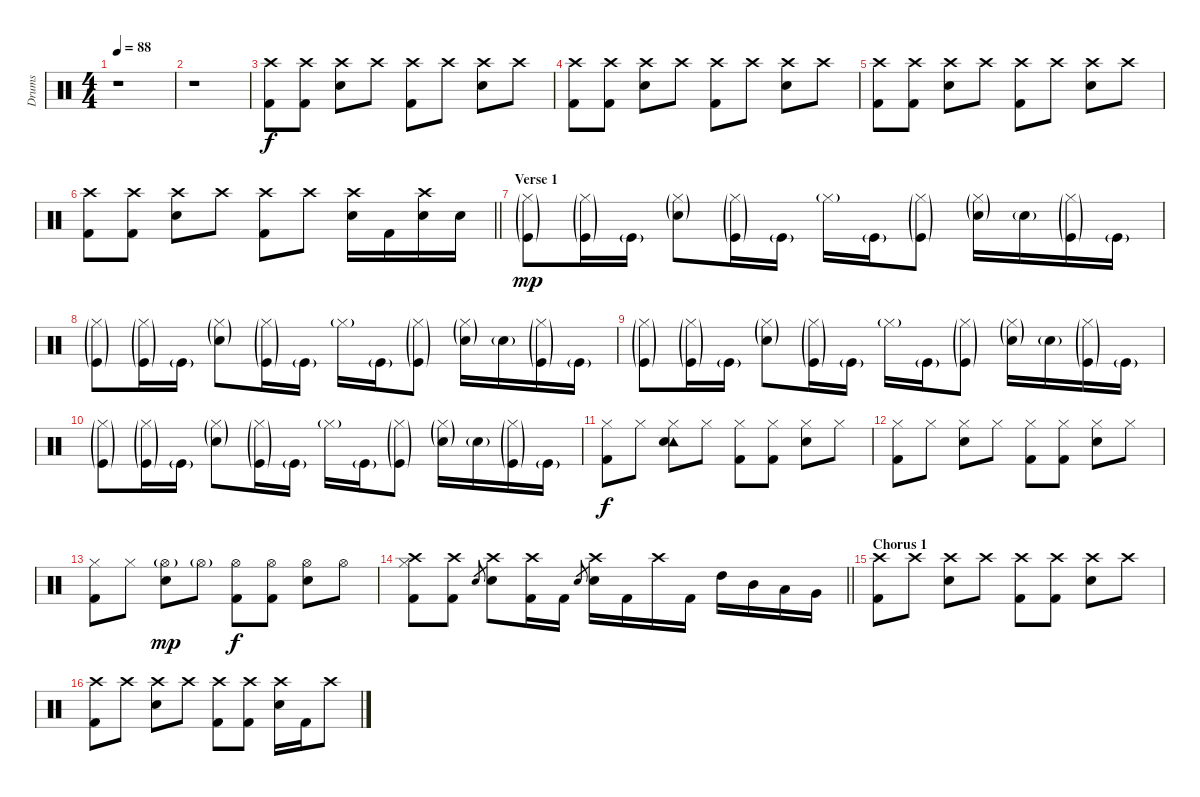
\track ("Drums" "Drums") {instrument percussion}
\staff {score}
\articulation defaults
\ts (4 4)
\tempo 88
\clef neutral
\ks c
r.1{dy f} |
r.1 |
("Crash high (hit)" "Kick (hit) 2").8 ("Crash high (hit)" "Kick (hit) 2").8 ("Crash high (hit)" "Electric Snare (hit)").8 "Crash high (hit)".8 ("Crash high (hit)" "Kick (hit) 2").8 "Crash high (hit)".8 ("Crash high (hit)" "Electric Snare (hit)").8 "Crash high (hit)".8 |
("Crash high (hit)" "Kick (hit) 2").8 ("Crash high (hit)" "Kick (hit) 2").8 ("Crash high (hit)" "Electric Snare (hit)").8 "Crash high (hit)".8 ("Crash high (hit)" "Kick (hit) 2").8 "Crash high (hit)".8 ("Crash high (hit)" "Electric Snare (hit)").8 "Crash high (hit)".8 |
("Crash high (hit)" "Kick (hit) 2").8 ("Crash high (hit)" "Kick (hit) 2").8 ("Crash high (hit)" "Electric Snare (hit)").8 "Crash high (hit)".8 ("Crash high (hit)" "Kick (hit) 2").8 "Crash high (hit)".8 ("Crash high (hit)" "Electric Snare (hit)").8 "Crash high (hit)".8 |
\barLineRight lightlight
("Crash high (hit)" "Kick (hit) 2").8 ("Crash high (hit)" "Kick (hit) 2").8 ("Crash high (hit)" "Electric Snare (hit)").8 "Crash high (hit)".8 ("Crash high (hit)" "Kick (hit) 2").8 "Crash high (hit)".8 ("Crash high (hit)" "Electric Snare (hit)").16 "Kick (hit) 2".16 ("Crash high (hit)" "Electric Snare (hit)").16 "Electric Snare (hit)".16 |
\section ("" "Verse 1")
("Hi-Hat (closed)"{g} "Kick (hit)"{g}).8{dy mp} ("Hi-Hat (closed)"{g} "Kick (hit)"{g}).16 "Kick (hit)"{g}.16 ("Hi-Hat (closed)"{g} "Electric Snare (hit)"{g}).8 ("Hi-Hat (closed)"{g} "Kick (hit)"{g}).16 "Kick (hit)"{g}.16 "Hi-Hat (closed)"{g}.16 "Kick (hit)"{g}.16 ("Hi-Hat (closed)"{g} "Kick (hit)"{g}).8 ("Hi-Hat (closed)"{g} "Electric Snare (hit)"{g}).16 "Electric Snare (hit)"{g}.16 ("Hi-Hat (closed)"{g} "Kick (hit)"{g}).16 "Kick (hit)"{g}.16 |
("Hi-Hat (closed)"{g} "Kick (hit)"{g}).8 ("Hi-Hat (closed)"{g} "Kick (hit)"{g}).16 "Kick (hit)"{g}.16 ("Hi-Hat (closed)"{g} "Electric Snare (hit)"{g}).8 ("Hi-Hat (closed)"{g} "Kick (hit)"{g}).16 "Kick (hit)"{g}.16 "Hi-Hat (closed)"{g}.16 "Kick (hit)"{g}.16 ("Hi-Hat (closed)"{g} "Kick (hit)"{g}).8 ("Hi-Hat (closed)"{g} "Electric Snare (hit)"{g}).16 "Electric Snare (hit)"{g}.16 ("Hi-Hat (closed)"{g} "Kick (hit)"{g}).16 "Kick (hit)"{g}.16 |
("Hi-Hat (closed)"{g} "Kick (hit)"{g}).8 ("Hi-Hat (closed)"{g} "Kick (hit)"{g}).16 "Kick (hit)"{g}.16 ("Hi-Hat (closed)"{g} "Electric Snare (hit)"{g}).8 ("Hi-Hat (closed)"{g} "Kick (hit)"{g}).16 "Kick (hit)"{g}.16 "Hi-Hat (closed)"{g}.16 "Kick (hit)"{g}.16 ("Hi-Hat (closed)"{g} "Kick (hit)"{g}).8 ("Hi-Hat (closed)"{g} "Electric Snare (hit)"{g}).16 "Electric Snare (hit)"{g}.16 ("Hi-Hat (closed)"{g} "Kick (hit)"{g}).16 "Kick (hit)"{g}.16 |
("Hi-Hat (closed)"{g} "Kick (hit)"{g}).8 ("Hi-Hat (closed)"{g} "Kick (hit)"{g}).16 "Kick (hit)"{g}.16 ("Hi-Hat (closed)"{g} "Electric Snare (hit)"{g}).8 ("Hi-Hat (closed)"{g} "Kick (hit)"{g}).16 "Kick (hit)"{g}.16 "Hi-Hat (closed)"{g}.16 "Kick (hit)"{g}.16 ("Hi-Hat (closed)"{g} "Kick (hit)"{g}).8 ("Hi-Hat (closed)"{g} "Electric Snare (hit)"{g}).16 "Electric Snare (hit)"{g}.16 ("Hi-Hat (closed)"{g} "Kick (hit)"{g}).16 "Kick (hit)"{g}.16 |
("Hi-Hat (closed)" "Kick (hit) 2").8{dy f} "Hi-Hat (closed)".8 ("Tambourine (hit)" "Hi-Hat (closed)" "Electric Snare (hit)").8 "Hi-Hat (closed)".8 ("Hi-Hat (closed)" "Kick (hit) 2").8 ("Hi-Hat (closed)" "Kick (hit) 2").8 ("Hi-Hat (closed)" "Electric Snare (hit)").8 "Hi-Hat (closed)".8 |
("Hi-Hat (closed)" "Kick (hit) 2").8 "Hi-Hat (closed)".8 ("Hi-Hat (closed)" "Electric Snare (hit)").8 "Hi-Hat (closed)".8 ("Hi-Hat (closed)" "Kick (hit) 2").8 ("Hi-Hat (closed)" "Kick (hit) 2").8 ("Hi-Hat (closed)" "Electric Snare (hit)").8 "Hi-Hat (closed)".8 |
("Hi-Hat (closed)" "Kick (hit) 2").8 "Hi-Hat (closed)".8 ("Hi-Hat (open)"{g} "Electric Snare (hit)").8{dy mp} "Hi-Hat (open)"{g}.8 ("Hi-Hat (open)" "Kick (hit) 2").8{dy f} ("Hi-Hat (open)" "Kick (hit) 2").8 ("Hi-Hat (open)" "Electric Snare (hit)").8 "Hi-Hat (open)".8 |
\barLineRight lightlight
("Crash high (hit)" "Hi-Hat (closed)" "Kick (hit) 2").8 ("Crash high (hit)" "Kick (hit) 2").8 "Electric Snare (hit)".8{gr} ("Crash high (hit)" "Electric Snare (hit)").8 ("Crash high (hit)" "Kick (hit) 2").16 "Kick (hit) 2".16 "Electric Snare (hit)".8{gr} ("Crash high (hit)" "Electric Snare (hit)").16 "Kick (hit) 2".16 "Crash high (hit)".16 "Kick (hit) 2".16 "High Tom (hit)".16 "Mid Tom (hit)".16 "Low Tom (hit)".16 "Very Low Tom (hit)".16 |
\section ("" "Chorus 1")
("Crash high (hit)" "Kick (hit) 2").8 "Crash high (hit)".8 ("Crash high (hit)" "Electric Snare (hit)").8 "Crash high (hit)".8 ("Crash high (hit)" "Kick (hit) 2").8 ("Crash high (hit)" "Kick (hit) 2").8 ("Crash high (hit)" "Electric Snare (hit)").8 "Crash high (hit)".8 |
("Crash high (hit)" "Kick (hit) 2").8 "Crash high (hit)".8 ("Crash high (hit)" "Electric Snare (hit)").8 "Crash high (hit)".8 ("Crash high (hit)" "Kick (hit) 2").8 ("Crash high (hit)" "Kick (hit) 2").8 ("Crash high (hit)" "Electric Snare (hit)").16 "Kick (hit) 2".16 "Crash high (hit)".8
